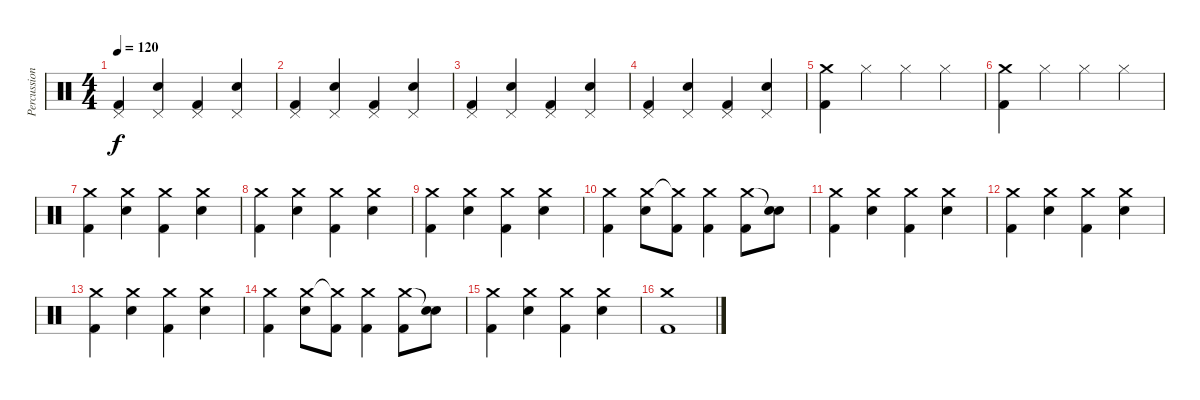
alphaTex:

\track ("Percussions" "Percussion") {instrument percussion}
\staff {score}
\articulation defaults
\ts (4 4)
\tempo 120
\clef neutral
\ks c
("Pedal Hi-Hat (hit)" "Kick (hit) 2").4{dy f} ("Pedal Hi-Hat (hit)" "Snare (hit) 2").4 ("Pedal Hi-Hat (hit)" "Kick (hit) 2").4 ("Pedal Hi-Hat (hit)" "Snare (hit) 2").4 |
("Pedal Hi-Hat (hit)" "Kick (hit) 2").4 ("Pedal Hi-Hat (hit)" "Snare (hit) 2").4 ("Pedal Hi-Hat (hit)" "Kick (hit) 2").4 ("Pedal Hi-Hat (hit)" "Snare (hit) 2").4 |
("Pedal Hi-Hat (hit)" "Kick (hit) 2").4 ("Pedal Hi-Hat (hit)" "Snare (hit) 2").4 ("Pedal Hi-Hat (hit)" "Kick (hit) 2").4 ("Pedal Hi-Hat (hit)" "Snare (hit) 2").4 |
("Pedal Hi-Hat (hit)" "Kick (hit) 2").4 ("Pedal Hi-Hat (hit)" "Snare (hit) 2").4 ("Pedal Hi-Hat (hit)" "Kick (hit) 2").4 ("Pedal Hi-Hat (hit)" "Snare (hit) 2").4 |
("Crash medium (hit)" "Kick (hit) 2").4 "Hi-Hat (closed)".4 "Hi-Hat (closed)".4 "Hi-Hat (closed)".4 |
("Crash medium (hit)" "Kick (hit) 2").4 "Hi-Hat (closed)".4 "Hi-Hat (closed)".4 "Hi-Hat (closed)".4 |
("Crash medium (hit)" "Kick (hit) 2").4 ("Crash medium (hit)" "Snare (hit) 2").4 ("Crash medium (hit)" "Kick (hit) 2").4 ("Crash medium (hit)" "Snare (hit) 2").4 |
("Crash medium (hit)" "Kick (hit) 2").4 ("Crash medium (hit)" "Snare (hit) 2").4 ("Crash medium (hit)" "Kick (hit) 2").4 ("Crash medium (hit)" "Snare (hit) 2").4 |
("Crash medium (hit)" "Kick (hit) 2").4 ("Crash medium (hit)" "Snare (hit) 2").4 ("Crash medium (hit)" "Kick (hit) 2").4 ("Crash medium (hit)" "Snare (hit) 2").4 |
("Crash medium (hit)" "Kick (hit) 2").4 ("Crash medium (hit)" "Snare (hit) 2").8 ("Crash medium (hit)"{t} "Kick (hit) 2").8 ("Crash medium (hit)" "Kick (hit) 2").4 ("Crash medium (hit)" "Kick (hit) 2").8 ("Snare (hit)"{t} "Snare (hit) 2").8 |
("Crash medium (hit)" "Kick (hit) 2").4 ("Crash medium (hit)" "Snare (hit) 2").4 ("Crash medium (hit)" "Kick (hit) 2").4 ("Crash medium (hit)" "Snare (hit) 2").4 |
("Crash medium (hit)" "Kick (hit) 2").4 ("Crash medium (hit)" "Snare (hit) 2").4 ("Crash medium (hit)" "Kick (hit) 2").4 ("Crash medium (hit)" "Snare (hit) 2").4 |
("Crash medium (hit)" "Kick (hit) 2").4 ("Crash medium (hit)" "Snare (hit) 2").4 ("Crash medium (hit)" "Kick (hit) 2").4 ("Crash medium (hit)" "Snare (hit) 2").4 |
("Crash medium (hit)" "Kick (hit) 2").4 ("Crash medium (hit)" "Snare (hit) 2").8 ("Crash medium (hit)"{t} "Kick (hit) 2").8 ("Crash medium (hit)" "Kick (hit) 2").4 ("Crash medium (hit)" "Kick (hit) 2").8 ("Snare (hit)"{t} "Snare (hit) 2").8 |
("Crash medium (hit)" "Kick (hit) 2").4 ("Crash medium (hit)" "Snare (hit) 2").4 ("Crash medium (hit)" "Kick (hit) 2").4 ("Crash medium (hit)" "Snare (hit) 2").4 |
("Crash medium (hit)" "Kick (hit) 2").1
